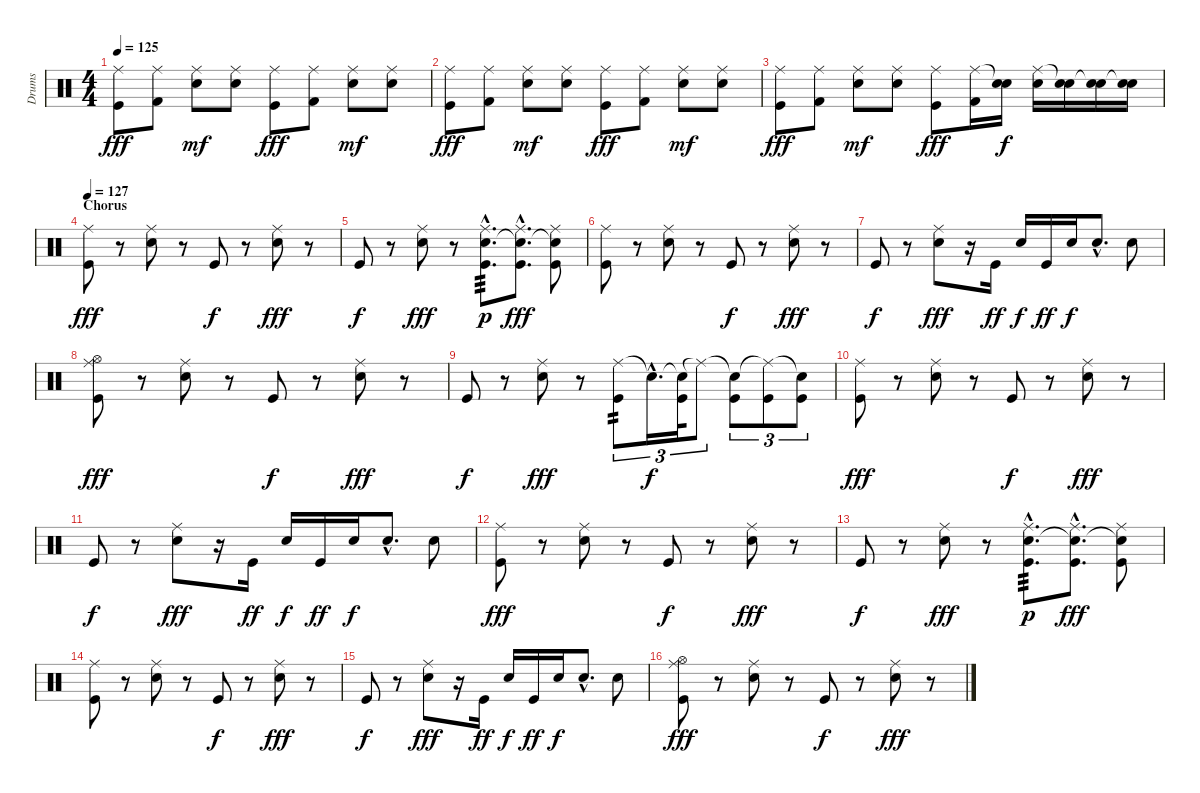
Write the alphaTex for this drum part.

\track ("Drums" "Drums") {instrument percussion}
\staff {score}
\articulation defaults
\ts (4 4)
\tempo 125
\clef neutral
\ks c
("Ride (middle)" "Kick (hit)").8{dy fff} ("Ride (middle)" "Kick (hit) 2").8 ("Ride (middle)" "Electric Snare (hit)").8{dy mf} ("Ride (middle)" "Electric Snare (hit)").8 ("Ride (middle)" "Kick (hit)").8{dy fff} ("Ride (middle)" "Kick (hit) 2").8 ("Ride (middle)" "Electric Snare (hit)").8{dy mf} ("Ride (middle)" "Electric Snare (hit)").8 |
("Ride (middle)" "Kick (hit)").8{dy fff} ("Ride (middle)" "Kick (hit) 2").8 ("Ride (middle)" "Electric Snare (hit)").8{dy mf} ("Ride (middle)" "Electric Snare (hit)").8 ("Ride (middle)" "Kick (hit)").8{dy fff} ("Ride (middle)" "Kick (hit) 2").8 ("Ride (middle)" "Electric Snare (hit)").8{dy mf} ("Ride (middle)" "Electric Snare (hit)").8 |
("Ride (middle)" "Kick (hit)").8{dy fff} ("Ride (middle)" "Kick (hit) 2").8 ("Ride (middle)" "Electric Snare (hit)").8{dy mf} ("Ride (middle)" "Electric Snare (hit)").8 ("Ride (middle)" "Kick (hit)").8{dy fff} ("Ride (middle)" "Kick (hit) 2").16 ("Snare (hit)"{t} "Snare (hit) 2").16{dy f} ("Ride (middle)" "Electric Snare (hit)").16 ("Snare (hit)"{t} "Snare (hit) 2").16 ("Snare (hit)"{t} "Electric Snare (hit)").16 ("Snare (hit)"{t} "Snare (hit) 2").16 |
\section ("" "Chorus")
\tempo 127
("Ride (middle)" "Kick (hit)").8{dy fff} r.8 ("Ride (middle)" "Snare (hit) 2").8 r.8 "Kick (hit)".8{dy f} r.8 ("Ride (middle)" "Snare (hit) 2").8{dy fff} r.8 |
"Kick (hit)".8{dy f} r.8 ("Ride (middle)" "Snare (hit) 2").8{dy fff} r.8 ("Ride (middle)"{hac} "Kick (hit)"{hac} "Electric Snare (hit)"{hac}).8{d tp 3 dy p} ("Ride (middle)"{hac} "Kick (hit)"{hac} "Snare (hit)"{hac t}).8{d dy fff} ("Ride (middle)" "Kick (hit)" "Snare (hit)"{t}).8 |
("Ride (middle)" "Kick (hit)").8 r.8 ("Ride (middle)" "Snare (hit) 2").8 r.8 "Kick (hit)".8{dy f} r.8 ("Ride (middle)" "Snare (hit) 2").8{dy fff} r.8 |
"Kick (hit)".8{dy f} r.8 ("Ride (middle)" "Snare (hit) 2").8{dy fff} r.16 "Kick (hit)".16{dy ff} "Electric Snare (hit)".16{dy f} "Kick (hit)".16{dy ff} "Electric Snare (hit)".16{dy f} "Snare (hit) 2"{hac}.8{d} "Snare (hit) 2".8 |
("Hi-Hat (open)" "Ride (middle)" "Kick (hit)").8{dy fff} r.8 ("Ride (middle)" "Snare (hit) 2").8 r.8 "Kick (hit)".8{dy f} r.8 ("Ride (middle)" "Snare (hit) 2").8{dy fff} r.8 |
"Kick (hit)".8{dy f} r.8 ("Ride (middle)" "Snare (hit) 2").8{dy fff} r.8 ("Ride (middle)" "Kick (hit)").8{tu (3 2) tp 2} "Snare (hit)"{hac t}.16{d tu (3 2) dy f} ("Snare (hit)"{t} "Kick (hit)").32{tu (3 2)} "Ride (middle)"{t}.8{tu (3 2)} ("Snare (hit)"{t} "Kick (hit)").8{tu (3 2)} ("Ride (middle)"{t} "Kick (hit)").8{tu (3 2)} ("Snare (hit)"{t} "Kick (hit)").8{tu (3 2)} |
("Ride (middle)" "Kick (hit)").8{dy fff} r.8 ("Ride (middle)" "Snare (hit) 2").8 r.8 "Kick (hit)".8{dy f} r.8 ("Ride (middle)" "Snare (hit) 2").8{dy fff} r.8 |
"Kick (hit)".8{dy f} r.8 ("Ride (middle)" "Snare (hit) 2").8{dy fff} r.16 "Kick (hit)".16{dy ff} "Electric Snare (hit)".16{dy f} "Kick (hit)".16{dy ff} "Electric Snare (hit)".16{dy f} "Snare (hit) 2"{hac}.8{d} "Snare (hit) 2".8 |
("Ride (middle)" "Kick (hit)").8{dy fff} r.8 ("Ride (middle)" "Snare (hit) 2").8 r.8 "Kick (hit)".8{dy f} r.8 ("Ride (middle)" "Snare (hit) 2").8{dy fff} r.8 |
"Kick (hit)".8{dy f} r.8 ("Ride (middle)" "Snare (hit) 2").8{dy fff} r.8 ("Ride (middle)"{hac} "Kick (hit)"{hac} "Electric Snare (hit)"{hac}).8{d tp 3 dy p} ("Ride (middle)"{hac} "Kick (hit)"{hac} "Snare (hit)"{hac t}).8{d dy fff} ("Ride (middle)" "Kick (hit)" "Snare (hit)"{t}).8 |
("Ride (middle)" "Kick (hit)").8 r.8 ("Ride (middle)" "Snare (hit) 2").8 r.8 "Kick (hit)".8{dy f} r.8 ("Ride (middle)" "Snare (hit) 2").8{dy fff} r.8 |
"Kick (hit)".8{dy f} r.8 ("Ride (middle)" "Snare (hit) 2").8{dy fff} r.16 "Kick (hit)".16{dy ff} "Electric Snare (hit)".16{dy f} "Kick (hit)".16{dy ff} "Electric Snare (hit)".16{dy f} "Snare (hit) 2"{hac}.8{d} "Snare (hit) 2".8 |
("Hi-Hat (open)" "Ride (middle)" "Kick (hit)").8{dy fff} r.8 ("Ride (middle)" "Snare (hit) 2").8 r.8 "Kick (hit)".8{dy f} r.8 ("Ride (middle)" "Snare (hit) 2").8{dy fff} r.8
